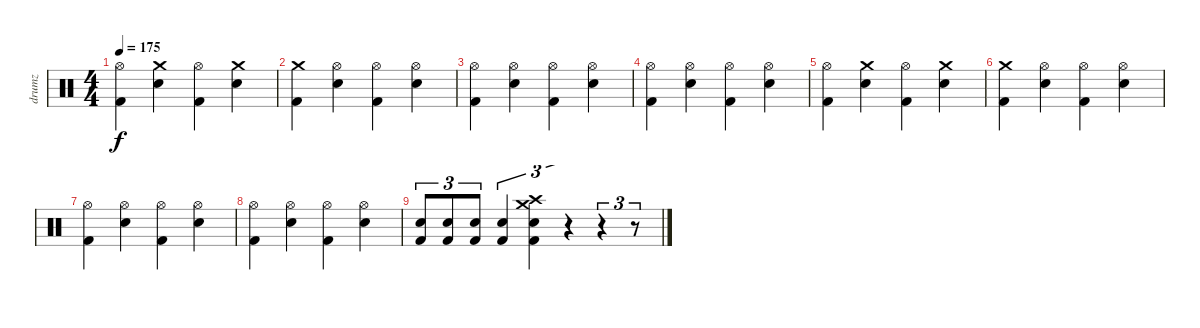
\track ("drumz" "drumz") {instrument percussion}
\staff {score}
\articulation defaults
\ts (4 4)
\tempo 175
\clef neutral
\ks c
("Hi-Hat (open)" "Kick (hit) 2").4{dy f} ("Crash medium (hit)" "Electric Snare (hit)").4 ("Hi-Hat (open)" "Kick (hit) 2").4 ("Crash medium (hit)" "Electric Snare (hit)").4 |
("Crash medium (hit)" "Kick (hit) 2").4 ("Hi-Hat (open)" "Electric Snare (hit)").4 ("Hi-Hat (open)" "Kick (hit) 2").4 ("Hi-Hat (open)" "Electric Snare (hit)").4 |
("Hi-Hat (open)" "Kick (hit) 2").4 ("Hi-Hat (open)" "Electric Snare (hit)").4 ("Hi-Hat (open)" "Kick (hit) 2").4 ("Hi-Hat (open)" "Electric Snare (hit)").4 |
("Hi-Hat (open)" "Kick (hit) 2").4 ("Hi-Hat (open)" "Electric Snare (hit)").4 ("Hi-Hat (open)" "Kick (hit) 2").4 ("Hi-Hat (open)" "Electric Snare (hit)").4 |
("Hi-Hat (open)" "Kick (hit) 2").4 ("Crash medium (hit)" "Electric Snare (hit)").4 ("Hi-Hat (open)" "Kick (hit) 2").4 ("Crash medium (hit)" "Electric Snare (hit)").4 |
("Crash medium (hit)" "Kick (hit) 2").4 ("Hi-Hat (open)" "Electric Snare (hit)").4 ("Hi-Hat (open)" "Kick (hit) 2").4 ("Hi-Hat (open)" "Electric Snare (hit)").4 |
("Hi-Hat (open)" "Kick (hit) 2").4 ("Hi-Hat (open)" "Electric Snare (hit)").4 ("Hi-Hat (open)" "Kick (hit) 2").4 ("Hi-Hat (open)" "Electric Snare (hit)").4 |
("Hi-Hat (open)" "Kick (hit) 2").4 ("Hi-Hat (open)" "Electric Snare (hit)").4 ("Hi-Hat (open)" "Kick (hit) 2").4 ("Hi-Hat (open)" "Electric Snare (hit)").4 |
("Electric Snare (hit)" "Kick (hit) 2").8{tu (3 2)} ("Electric Snare (hit)" "Kick (hit) 2").8{tu (3 2)} ("Electric Snare (hit)" "Kick (hit) 2").8{tu (3 2)} ("Electric Snare (hit)" "Kick (hit) 2").4{tu (3 2)} ("Crash medium (hit)" "Crash high (hit)" "Electric Snare (hit)" "Kick (hit) 2").4{tu (3 2)} r.4{tu (3 2)} r.4{tu (3 2)} r.8{tu (3 2)}
